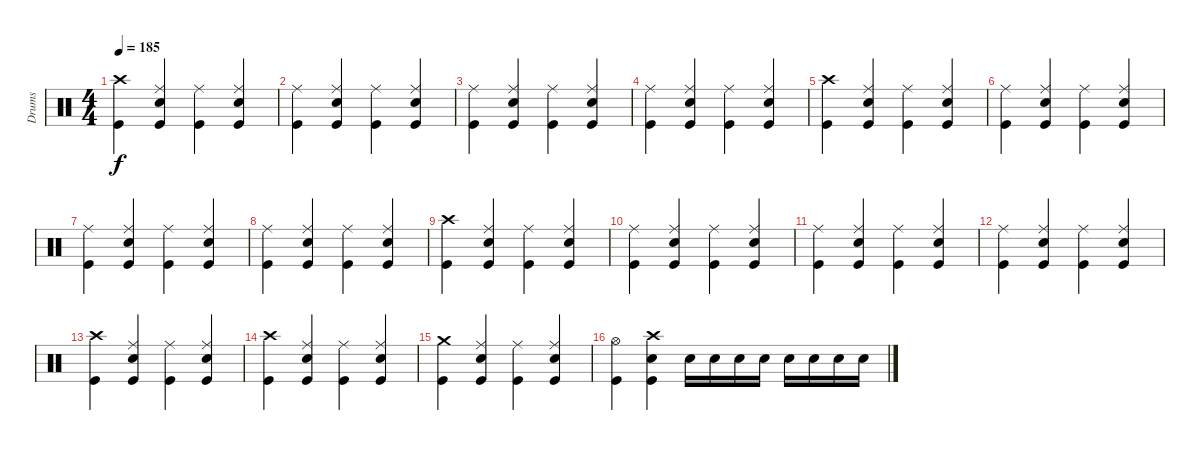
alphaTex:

\track ("Drums " "Drums ") {instrument percussion}
\staff {score}
\articulation defaults
\ts (4 4)
\tempo 185
\clef neutral
\ks c
("Crash high (hit)" "Kick (hit)").4{dy f} ("Ride (middle)" "Snare (hit) 2" "Kick (hit)").4 ("Ride (middle)" "Kick (hit)").4 ("Ride (middle)" "Snare (hit) 2" "Kick (hit)").4 |
("Ride (middle)" "Kick (hit)").4 ("Ride (middle)" "Snare (hit) 2" "Kick (hit)").4 ("Ride (middle)" "Kick (hit)").4 ("Ride (middle)" "Snare (hit) 2" "Kick (hit)").4 |
("Ride (middle)" "Kick (hit)").4 ("Ride (middle)" "Snare (hit) 2" "Kick (hit)").4 ("Ride (middle)" "Kick (hit)").4 ("Ride (middle)" "Snare (hit) 2" "Kick (hit)").4 |
("Ride (middle)" "Kick (hit)").4 ("Ride (middle)" "Snare (hit) 2" "Kick (hit)").4 ("Ride (middle)" "Kick (hit)").4 ("Ride (middle)" "Snare (hit) 2" "Kick (hit)").4 |
("Crash high (hit)" "Kick (hit)").4 ("Ride (middle)" "Snare (hit) 2" "Kick (hit)").4 ("Ride (middle)" "Kick (hit)").4 ("Ride (middle)" "Snare (hit) 2" "Kick (hit)").4 |
("Ride (middle)" "Kick (hit)").4 ("Ride (middle)" "Snare (hit) 2" "Kick (hit)").4 ("Ride (middle)" "Kick (hit)").4 ("Ride (middle)" "Snare (hit) 2" "Kick (hit)").4 |
("Ride (middle)" "Kick (hit)").4 ("Ride (middle)" "Snare (hit) 2" "Kick (hit)").4 ("Ride (middle)" "Kick (hit)").4 ("Ride (middle)" "Snare (hit) 2" "Kick (hit)").4 |
("Ride (middle)" "Kick (hit)").4 ("Ride (middle)" "Snare (hit) 2" "Kick (hit)").4 ("Ride (middle)" "Kick (hit)").4 ("Ride (middle)" "Snare (hit) 2" "Kick (hit)").4 |
("Crash high (hit)" "Kick (hit)").4 ("Ride (middle)" "Snare (hit) 2" "Kick (hit)").4 ("Ride (middle)" "Kick (hit)").4 ("Ride (middle)" "Snare (hit) 2" "Kick (hit)").4 |
("Ride (middle)" "Kick (hit)").4 ("Ride (middle)" "Snare (hit) 2" "Kick (hit)").4 ("Ride (middle)" "Kick (hit)").4 ("Ride (middle)" "Snare (hit) 2" "Kick (hit)").4 |
("Ride (middle)" "Kick (hit)").4 ("Ride (middle)" "Snare (hit) 2" "Kick (hit)").4 ("Ride (middle)" "Kick (hit)").4 ("Ride (middle)" "Snare (hit) 2" "Kick (hit)").4 |
("Ride (middle)" "Kick (hit)").4 ("Ride (middle)" "Snare (hit) 2" "Kick (hit)").4 ("Ride (middle)" "Kick (hit)").4 ("Ride (middle)" "Snare (hit) 2" "Kick (hit)").4 |
("Crash high (hit)" "Kick (hit)").4 ("Ride (middle)" "Snare (hit) 2" "Kick (hit)").4 ("Ride (middle)" "Kick (hit)").4 ("Ride (middle)" "Snare (hit) 2" "Kick (hit)").4 |
("Crash high (hit)" "Kick (hit)").4 ("Ride (middle)" "Snare (hit) 2" "Kick (hit)").4 ("Ride (middle)" "Kick (hit)").4 ("Ride (middle)" "Snare (hit) 2" "Kick (hit)").4 |
("Crash medium (hit)" "Kick (hit)").4 ("Ride (middle)" "Snare (hit) 2" "Kick (hit)").4 ("Ride (middle)" "Kick (hit)").4 ("Ride (middle)" "Snare (hit) 2" "Kick (hit)").4 |
("Hi-Hat (open)" "Kick (hit)").4 ("Crash high (hit)" "Snare (hit) 2" "Kick (hit)").4 "Snare (hit) 2".16 "Snare (hit) 2".16 "Snare (hit) 2".16 "Snare (hit) 2".16 "Snare (hit) 2".16 "Snare (hit) 2".16 "Snare (hit) 2".16 "Snare (hit) 2".16
